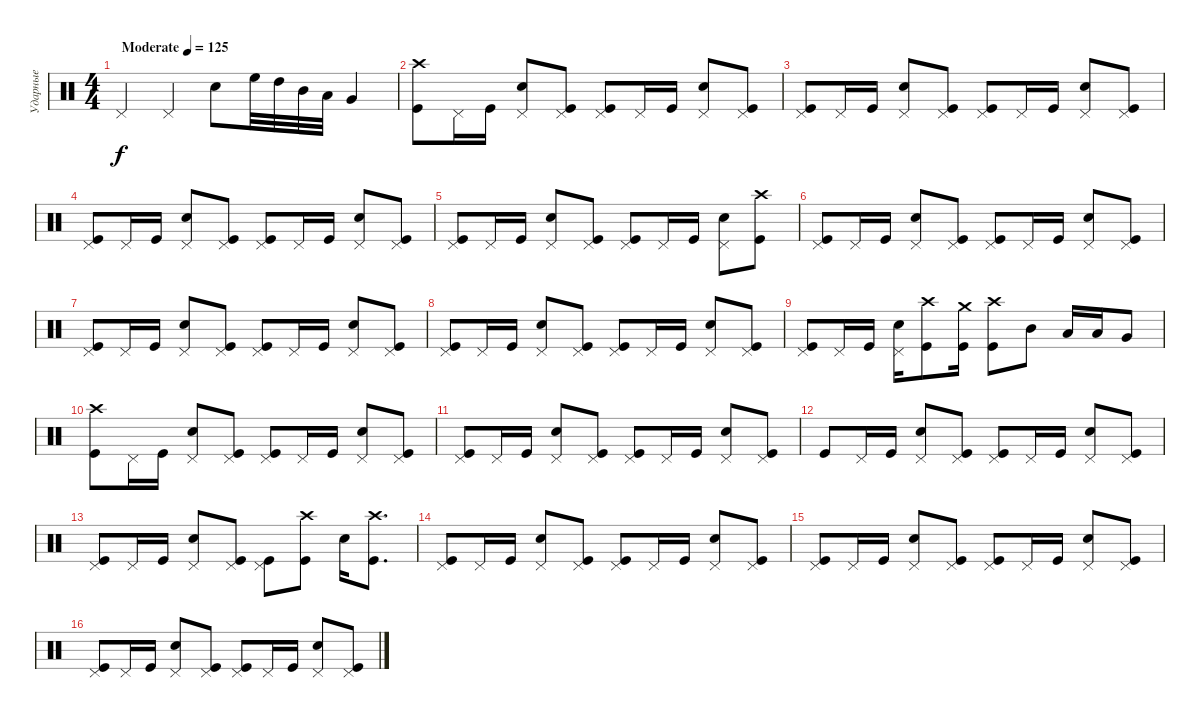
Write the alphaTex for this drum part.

\track ("Ударные" "Ударные") {instrument percussion}
\staff {score}
\articulation defaults
\ts (4 4)
\tempo (125 "Moderate")
\clef neutral
\ks c "Pedal Hi-Hat (hit)".4{dy f} "Pedal Hi-Hat (hit)".4 "Snare (hit) 2".8 "High Floor Tom (hit)".32 "High Tom (hit)".32 "Mid Tom (hit)".32 "Low Tom (hit)".32 "Very Low Tom (hit)".4
|
("Kick (hit)" "Crash high (hit)").8 "Pedal Hi-Hat (hit)".16 "Kick (hit)".16 ("Pedal Hi-Hat (hit)" "Snare (hit) 2").8 ("Kick (hit)" "Pedal Hi-Hat (hit)").8 ("Kick (hit)" "Pedal Hi-Hat (hit)").8 "Pedal Hi-Hat (hit)".16 "Kick (hit)".16 ("Pedal Hi-Hat (hit)" "Snare (hit) 2").8 ("Kick (hit)" "Pedal Hi-Hat (hit)").8 |
("Kick (hit)" "Pedal Hi-Hat (hit)").8 "Pedal Hi-Hat (hit)".16 "Kick (hit)".16 ("Pedal Hi-Hat (hit)" "Snare (hit) 2").8 ("Kick (hit)" "Pedal Hi-Hat (hit)").8 ("Kick (hit)" "Pedal Hi-Hat (hit)").8 "Pedal Hi-Hat (hit)".16 "Kick (hit)".16 ("Pedal Hi-Hat (hit)" "Snare (hit) 2").8 ("Kick (hit)" "Pedal Hi-Hat (hit)").8 |
("Kick (hit)" "Pedal Hi-Hat (hit)").8 "Pedal Hi-Hat (hit)".16 "Kick (hit)".16 ("Pedal Hi-Hat (hit)" "Snare (hit) 2").8 ("Kick (hit)" "Pedal Hi-Hat (hit)").8 ("Kick (hit)" "Pedal Hi-Hat (hit)").8 "Pedal Hi-Hat (hit)".16 "Kick (hit)".16 ("Pedal Hi-Hat (hit)" "Snare (hit) 2").8 ("Kick (hit)" "Pedal Hi-Hat (hit)").8 |
("Kick (hit)" "Pedal Hi-Hat (hit)").8 "Pedal Hi-Hat (hit)".16 "Kick (hit)".16 ("Pedal Hi-Hat (hit)" "Snare (hit) 2").8 ("Kick (hit)" "Pedal Hi-Hat (hit)").8 ("Kick (hit)" "Pedal Hi-Hat (hit)").8 "Pedal Hi-Hat (hit)".16 "Kick (hit)".16 ("Pedal Hi-Hat (hit)" "Snare (hit) 2").8 ("Kick (hit)" "Crash high (hit)").8 |
("Kick (hit)" "Pedal Hi-Hat (hit)").8 "Pedal Hi-Hat (hit)".16 "Kick (hit)".16 ("Pedal Hi-Hat (hit)" "Snare (hit) 2").8 ("Kick (hit)" "Pedal Hi-Hat (hit)").8 ("Kick (hit)" "Pedal Hi-Hat (hit)").8 "Pedal Hi-Hat (hit)".16 "Kick (hit)".16 ("Pedal Hi-Hat (hit)" "Snare (hit) 2").8 ("Kick (hit)" "Pedal Hi-Hat (hit)").8 |
("Kick (hit)" "Pedal Hi-Hat (hit)").8 "Pedal Hi-Hat (hit)".16 "Kick (hit)".16 ("Pedal Hi-Hat (hit)" "Snare (hit) 2").8 ("Kick (hit)" "Pedal Hi-Hat (hit)").8 ("Kick (hit)" "Pedal Hi-Hat (hit)").8 "Pedal Hi-Hat (hit)".16 "Kick (hit)".16 ("Pedal Hi-Hat (hit)" "Snare (hit) 2").8 ("Kick (hit)" "Pedal Hi-Hat (hit)").8 |
("Kick (hit)" "Pedal Hi-Hat (hit)").8 "Pedal Hi-Hat (hit)".16 "Kick (hit)".16 ("Pedal Hi-Hat (hit)" "Snare (hit) 2").8 ("Kick (hit)" "Pedal Hi-Hat (hit)").8 ("Kick (hit)" "Pedal Hi-Hat (hit)").8 "Pedal Hi-Hat (hit)".16 "Kick (hit)".16 ("Pedal Hi-Hat (hit)" "Snare (hit) 2").8 ("Kick (hit)" "Pedal Hi-Hat (hit)").8 |
("Kick (hit)" "Pedal Hi-Hat (hit)").8 "Pedal Hi-Hat (hit)".16 "Kick (hit)".16 ("Pedal Hi-Hat (hit)" "Snare (hit) 2").16 ("Kick (hit)" "Crash high (hit)").8 ("Kick (hit)" "Crash medium (hit)").16 ("Kick (hit)" "Crash high (hit)").8 "Mid Tom (hit)".8 "Low Tom (hit)".16 "Low Tom (hit)".16 "Very Low Tom (hit)".8 |
("Kick (hit)" "Crash high (hit)").8 "Pedal Hi-Hat (hit)".16 "Kick (hit)".16 ("Pedal Hi-Hat (hit)" "Snare (hit) 2").8 ("Kick (hit)" "Pedal Hi-Hat (hit)").8 ("Kick (hit)" "Pedal Hi-Hat (hit)").8 "Pedal Hi-Hat (hit)".16 "Kick (hit)".16 ("Pedal Hi-Hat (hit)" "Snare (hit) 2").8 ("Kick (hit)" "Pedal Hi-Hat (hit)").8 |
("Kick (hit)" "Pedal Hi-Hat (hit)").8 "Pedal Hi-Hat (hit)".16 "Kick (hit)".16 ("Pedal Hi-Hat (hit)" "Snare (hit) 2").8 ("Kick (hit)" "Pedal Hi-Hat (hit)").8 ("Kick (hit)" "Pedal Hi-Hat (hit)").8 "Pedal Hi-Hat (hit)".16 "Kick (hit)".16 ("Pedal Hi-Hat (hit)" "Snare (hit) 2").8 ("Kick (hit)" "Pedal Hi-Hat (hit)").8 |
"Kick (hit)".8 "Pedal Hi-Hat (hit)".16 "Kick (hit)".16 ("Pedal Hi-Hat (hit)" "Snare (hit) 2").8 ("Kick (hit)" "Pedal Hi-Hat (hit)").8 ("Kick (hit)" "Pedal Hi-Hat (hit)").8 "Pedal Hi-Hat (hit)".16 "Kick (hit)".16 ("Pedal Hi-Hat (hit)" "Snare (hit) 2").8 ("Kick (hit)" "Pedal Hi-Hat (hit)").8 |
("Kick (hit)" "Pedal Hi-Hat (hit)").8 "Pedal Hi-Hat (hit)".16 "Kick (hit)".16 ("Pedal Hi-Hat (hit)" "Snare (hit) 2").8 ("Kick (hit)" "Pedal Hi-Hat (hit)").8 ("Kick (hit)" "Pedal Hi-Hat (hit)").8 ("Kick (hit)" "Crash high (hit)").8 "Snare (hit) 2".16 ("Kick (hit)" "Crash high (hit)").8{d} |
("Kick (hit)" "Pedal Hi-Hat (hit)").8 "Pedal Hi-Hat (hit)".16 "Kick (hit)".16 ("Pedal Hi-Hat (hit)" "Snare (hit) 2").8 ("Kick (hit)" "Pedal Hi-Hat (hit)").8 ("Kick (hit)" "Pedal Hi-Hat (hit)").8 "Pedal Hi-Hat (hit)".16 "Kick (hit)".16 ("Pedal Hi-Hat (hit)" "Snare (hit) 2").8 ("Kick (hit)" "Pedal Hi-Hat (hit)").8 |
("Kick (hit)" "Pedal Hi-Hat (hit)").8 "Pedal Hi-Hat (hit)".16 "Kick (hit)".16 ("Pedal Hi-Hat (hit)" "Snare (hit) 2").8 ("Kick (hit)" "Pedal Hi-Hat (hit)").8 ("Kick (hit)" "Pedal Hi-Hat (hit)").8 "Pedal Hi-Hat (hit)".16 "Kick (hit)".16 ("Pedal Hi-Hat (hit)" "Snare (hit) 2").8 ("Kick (hit)" "Pedal Hi-Hat (hit)").8 |
("Kick (hit)" "Pedal Hi-Hat (hit)").8 "Pedal Hi-Hat (hit)".16 "Kick (hit)".16 ("Pedal Hi-Hat (hit)" "Snare (hit) 2").8 ("Kick (hit)" "Pedal Hi-Hat (hit)").8 ("Kick (hit)" "Pedal Hi-Hat (hit)").8 "Pedal Hi-Hat (hit)".16 "Kick (hit)".16 ("Pedal Hi-Hat (hit)" "Snare (hit) 2").8 ("Kick (hit)" "Pedal Hi-Hat (hit)").8
